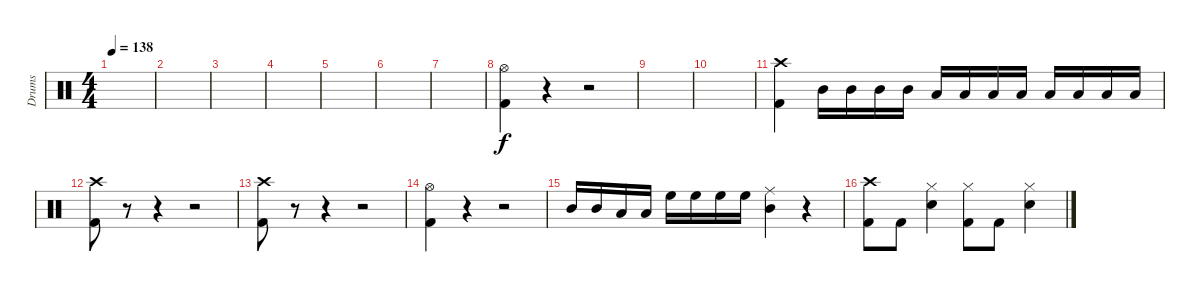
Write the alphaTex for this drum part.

\track ("Drums" "Drums") {instrument percussion}
\staff {score}
\articulation defaults
\ts (4 4)
\tempo 138
\clef neutral
\ks c
|
|
|
|
|
|
|
("Hi-Hat (open)" "Kick (hit) 2").4 r.4 r.2 |
|
|
("Crash high (hit)" "Kick (hit) 2").4 "Mid Tom (hit)".16 "Mid Tom (hit)".16 "Mid Tom (hit)".16 "Mid Tom (hit)".16 "Low Tom (hit)".16 "Low Tom (hit)".16 "Low Tom (hit)".16 "Low Tom (hit)".16 "Low Floor Tom (hit)".16 "Low Floor Tom (hit)".16 "Low Floor Tom (hit)".16 "Low Floor Tom (hit)".16 |
("Crash high (hit)" "Kick (hit) 2").8 r.8 r.4 r.2 |
("Crash high (hit)" "Kick (hit) 2").8 r.8 r.4 r.2 |
("Hi-Hat (open)" "Kick (hit) 2").4 r.4 r.2 |
"Mid Tom (hit)".16 "Mid Tom (hit)".16 "Low Tom (hit)".16 "Low Tom (hit)".16 "High Floor Tom (hit)".16 "High Floor Tom (hit)".16 "High Floor Tom (hit)".16 "High Floor Tom (hit)".16 ("Ride (middle)" "Mid Tom (hit)").4 r.4 |
("Crash high (hit)" "Kick (hit) 2").8 "Kick (hit) 2".8 ("Hi-Hat (closed)" "Snare (hit) 2").4 ("Hi-Hat (closed)" "Kick (hit) 2").8 "Kick (hit) 2".8 ("Hi-Hat (closed)" "Snare (hit) 2").4
